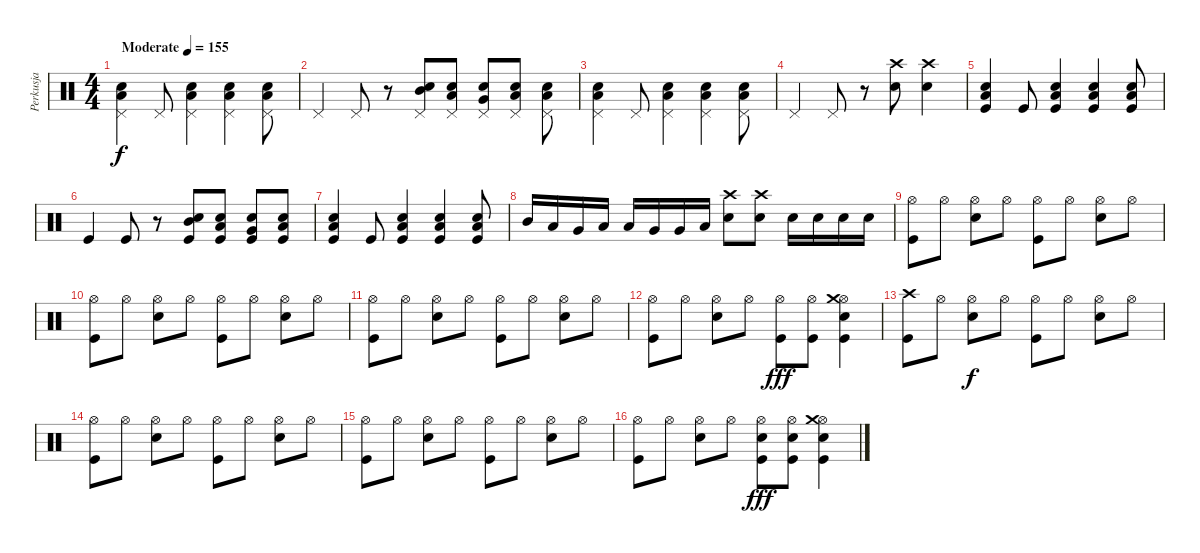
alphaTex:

\track ("Perkusja" "Perkusja") {instrument percussion}
\staff {score}
\articulation defaults
\ts (4 4)
\tempo (155 "Moderate")
\clef neutral
\ks c
("Low Floor Tom (hit)" "Pedal Hi-Hat (hit)" "Snare (hit) 2").4{dy f} "Pedal Hi-Hat (hit)".8 ("Snare (hit) 2" "Low Floor Tom (hit)" "Pedal Hi-Hat (hit)").4 ("Snare (hit) 2" "Low Floor Tom (hit)" "Pedal Hi-Hat (hit)").4 ("Snare (hit) 2" "Low Floor Tom (hit)" "Pedal Hi-Hat (hit)").8 |
"Pedal Hi-Hat (hit)".4 "Pedal Hi-Hat (hit)".8 r.8 ("Snare (hit) 2" "Mid Tom (hit)" "Pedal Hi-Hat (hit)").8 ("Snare (hit) 2" "Low Tom (hit)" "Pedal Hi-Hat (hit)").8 ("Snare (hit) 2" "Very Low Tom (hit)" "Pedal Hi-Hat (hit)").8 ("Snare (hit) 2" "Low Floor Tom (hit)" "Pedal Hi-Hat (hit)").8 ("Low Floor Tom (hit)" "Snare (hit) 2" "Pedal Hi-Hat (hit)").8 |
("Low Floor Tom (hit)" "Pedal Hi-Hat (hit)" "Snare (hit) 2").4 "Pedal Hi-Hat (hit)".8 ("Snare (hit) 2" "Low Floor Tom (hit)" "Pedal Hi-Hat (hit)").4 ("Snare (hit) 2" "Low Floor Tom (hit)" "Pedal Hi-Hat (hit)").4 ("Snare (hit) 2" "Low Floor Tom (hit)" "Pedal Hi-Hat (hit)").8 |
"Pedal Hi-Hat (hit)".4 "Pedal Hi-Hat (hit)".8 r.8 ("Snare (hit) 2" "Crash high (hit)").8 ("Snare (hit) 2" "Crash high (hit)").4 |
("Snare (hit) 2" "Kick (hit)" "Low Floor Tom (hit)").4 "Kick (hit)".8 ("Kick (hit)" "Low Floor Tom (hit)" "Snare (hit) 2").4 ("Snare (hit) 2" "Kick (hit)" "Low Floor Tom (hit)").4 ("Snare (hit) 2" "Kick (hit)" "Low Floor Tom (hit)").8 |
"Kick (hit)".4 "Kick (hit)".8 r.8 ("Snare (hit) 2" "Kick (hit)" "Mid Tom (hit)").8 ("Snare (hit) 2" "Kick (hit)" "Low Tom (hit)").8 ("Snare (hit) 2" "Kick (hit)" "Very Low Tom (hit)").8 ("Snare (hit) 2" "Kick (hit)" "Low Floor Tom (hit)").8 |
("Snare (hit) 2" "Kick (hit)" "Low Floor Tom (hit)").4 "Kick (hit)".8 ("Kick (hit)" "Low Floor Tom (hit)" "Snare (hit) 2").4 ("Snare (hit) 2" "Kick (hit)" "Low Floor Tom (hit)").4 ("Snare (hit) 2" "Kick (hit)" "Low Floor Tom (hit)").8 |
"Mid Tom (hit)".16 "Low Tom (hit)".16 "Very Low Tom (hit)".16 "Low Floor Tom (hit)".16 "Low Tom (hit)".16 "Very Low Tom (hit)".16 "Very Low Tom (hit)".16 "Low Floor Tom (hit)".16 ("Snare (hit) 2" "Crash high (hit)").8 ("Snare (hit) 2" "Crash high (hit)").8 "Snare (hit) 2".16 "Snare (hit) 2".16 "Snare (hit) 2".16 "Snare (hit) 2".16 |
("Kick (hit)" "Hi-Hat (open)").8 "Hi-Hat (open)".8 ("Hi-Hat (open)" "Snare (hit) 2").8 "Hi-Hat (open)".8 ("Kick (hit)" "Hi-Hat (open)").8 "Hi-Hat (open)".8 ("Hi-Hat (open)" "Snare (hit) 2").8 "Hi-Hat (open)".8 |
("Kick (hit)" "Hi-Hat (open)").8 "Hi-Hat (open)".8 ("Hi-Hat (open)" "Snare (hit) 2").8 "Hi-Hat (open)".8 ("Kick (hit)" "Hi-Hat (open)").8 "Hi-Hat (open)".8 ("Hi-Hat (open)" "Snare (hit) 2").8 "Hi-Hat (open)".8 |
("Kick (hit)" "Hi-Hat (open)").8 "Hi-Hat (open)".8 ("Hi-Hat (open)" "Snare (hit) 2").8 "Hi-Hat (open)".8 ("Kick (hit)" "Hi-Hat (open)").8 "Hi-Hat (open)".8 ("Hi-Hat (open)" "Snare (hit) 2").8 "Hi-Hat (open)".8 |
("Kick (hit)" "Hi-Hat (open)").8 "Hi-Hat (open)".8 ("Hi-Hat (open)" "Snare (hit) 2").8 "Hi-Hat (open)".8 ("Kick (hit)" "Hi-Hat (open)").8{dy fff} ("Kick (hit)" "Hi-Hat (open)").8 ("Snare (hit) 2" "Hi-Hat (open)" "Kick (hit)" "Crash medium (hit)").4 |
("Kick (hit)" "Crash high (hit)").8 "Hi-Hat (open)".8 ("Hi-Hat (open)" "Snare (hit) 2").8{dy f} "Hi-Hat (open)".8 ("Kick (hit)" "Hi-Hat (open)").8 "Hi-Hat (open)".8 ("Hi-Hat (open)" "Snare (hit) 2").8 "Hi-Hat (open)".8 |
("Kick (hit)" "Hi-Hat (open)").8 "Hi-Hat (open)".8 ("Hi-Hat (open)" "Snare (hit) 2").8 "Hi-Hat (open)".8 ("Kick (hit)" "Hi-Hat (open)").8 "Hi-Hat (open)".8 ("Hi-Hat (open)" "Snare (hit) 2").8 "Hi-Hat (open)".8 |
("Kick (hit)" "Hi-Hat (open)").8 "Hi-Hat (open)".8 ("Hi-Hat (open)" "Snare (hit) 2").8 "Hi-Hat (open)".8 ("Kick (hit)" "Hi-Hat (open)").8 "Hi-Hat (open)".8 ("Hi-Hat (open)" "Snare (hit) 2").8 "Hi-Hat (open)".8 |
("Kick (hit)" "Hi-Hat (open)").8 "Hi-Hat (open)".8 ("Hi-Hat (open)" "Snare (hit) 2").8 "Hi-Hat (open)".8 ("Kick (hit)" "Hi-Hat (open)" "Snare (hit) 2").8{dy fff} ("Kick (hit)" "Hi-Hat (open)" "Snare (hit) 2").8 ("Snare (hit) 2" "Hi-Hat (open)" "Kick (hit)" "Crash medium (hit)").4
